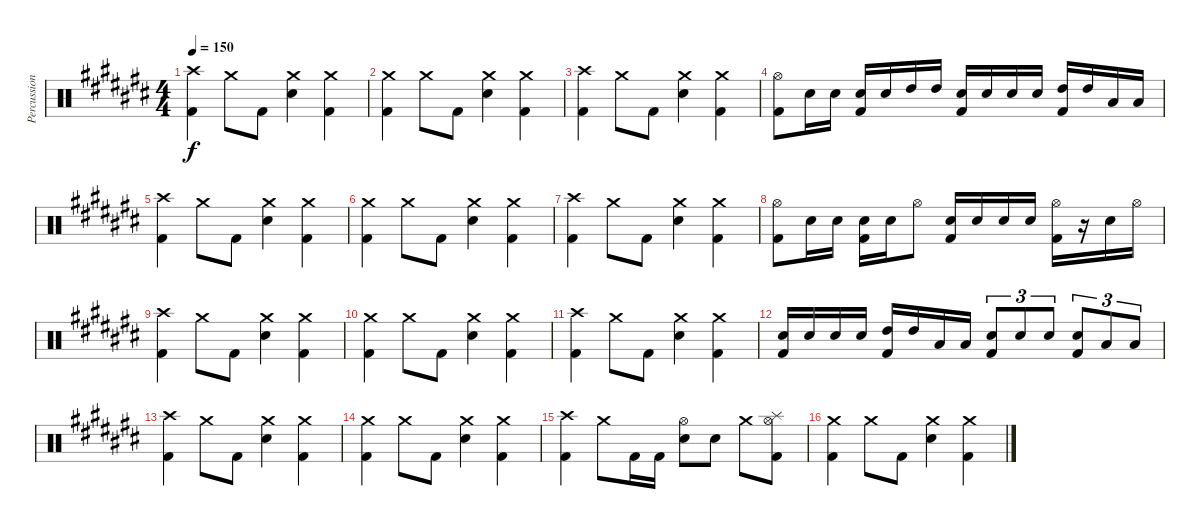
\track ("Percussion" "Percussion") {instrument percussion}
\staff {score}
\articulation defaults
\ts (4 4)
\tempo 150
\clef neutral
\ks c#
("Crash high (hit)" "Kick (hit) 2").4{dy f} "Crash medium (hit)".8 "Kick (hit) 2".8 ("Crash medium (hit)" "Electric Snare (hit)").4 ("Crash medium (hit)" "Kick (hit) 2").4 |
("Crash medium (hit)" "Kick (hit) 2").4 "Crash medium (hit)".8 "Kick (hit) 2".8 ("Crash medium (hit)" "Electric Snare (hit)").4 ("Crash medium (hit)" "Kick (hit) 2").4 |
("Crash high (hit)" "Kick (hit) 2").4 "Crash medium (hit)".8 "Kick (hit) 2".8 ("Crash medium (hit)" "Electric Snare (hit)").4 ("Crash medium (hit)" "Kick (hit) 2").4 |
("Hi-Hat (open)" "Kick (hit) 2").8 "Electric Snare (hit)".16 "Electric Snare (hit)".16 ("Electric Snare (hit)" "Kick (hit) 2").16 "Electric Snare (hit)".16 "High Tom (hit)".16 "High Tom (hit)".16 ("Electric Snare (hit)" "Kick (hit) 2").16 "Electric Snare (hit)".16 "Electric Snare (hit)".16 "Electric Snare (hit)".16 ("High Tom (hit)" "Kick (hit) 2").16 "High Tom (hit)".16 "Low Tom (hit)".16 "Low Tom (hit)".16 |
("Crash high (hit)" "Kick (hit) 2").4 "Crash medium (hit)".8 "Kick (hit) 2".8 ("Crash medium (hit)" "Electric Snare (hit)").4 ("Crash medium (hit)" "Kick (hit) 2").4 |
("Crash medium (hit)" "Kick (hit) 2").4 "Crash medium (hit)".8 "Kick (hit) 2".8 ("Crash medium (hit)" "Electric Snare (hit)").4 ("Crash medium (hit)" "Kick (hit) 2").4 |
("Crash high (hit)" "Kick (hit) 2").4 "Crash medium (hit)".8 "Kick (hit) 2".8 ("Crash medium (hit)" "Electric Snare (hit)").4 ("Crash medium (hit)" "Kick (hit) 2").4 |
("Hi-Hat (open)" "Kick (hit) 2").8 "Electric Snare (hit)".16 "Electric Snare (hit)".16 ("Electric Snare (hit)" "Kick (hit) 2").16 "Electric Snare (hit)".16 "Hi-Hat (open)".8 ("Electric Snare (hit)" "Kick (hit) 2").16 "Electric Snare (hit)".16 "Electric Snare (hit)".16 "Electric Snare (hit)".16 ("Hi-Hat (open)" "Kick (hit) 2").16 r.16 "Electric Snare (hit)".16 "Hi-Hat (open)".16 |
("Crash high (hit)" "Kick (hit) 2").4 "Crash medium (hit)".8 "Kick (hit) 2".8 ("Crash medium (hit)" "Electric Snare (hit)").4 ("Crash medium (hit)" "Kick (hit) 2").4 |
("Crash medium (hit)" "Kick (hit) 2").4 "Crash medium (hit)".8 "Kick (hit) 2".8 ("Crash medium (hit)" "Electric Snare (hit)").4 ("Crash medium (hit)" "Kick (hit) 2").4 |
("Crash high (hit)" "Kick (hit) 2").4 "Crash medium (hit)".8 "Kick (hit) 2".8 ("Crash medium (hit)" "Electric Snare (hit)").4 ("Crash medium (hit)" "Kick (hit) 2").4 |
("Electric Snare (hit)" "Kick (hit) 2").16 "Electric Snare (hit)".16 "Electric Snare (hit)".16 "Electric Snare (hit)".16 ("High Tom (hit)" "Kick (hit) 2").16 "High Tom (hit)".16 "Low Tom (hit)".16 "Low Tom (hit)".16 ("Electric Snare (hit)" "Kick (hit) 2").8{tu (3 2)} "Electric Snare (hit)".8{tu (3 2)} "Electric Snare (hit)".8{tu (3 2)} ("Electric Snare (hit)" "Kick (hit) 2").8{tu (3 2)} "Low Tom (hit)".8{tu (3 2)} "Low Tom (hit)".8{tu (3 2)} |
("Crash high (hit)" "Kick (hit) 2").4 "Crash medium (hit)".8 "Kick (hit) 2".8 ("Crash medium (hit)" "Electric Snare (hit)").4 ("Crash medium (hit)" "Kick (hit) 2").4 |
("Crash medium (hit)" "Kick (hit) 2").4 "Crash medium (hit)".8 "Kick (hit) 2".8 ("Crash medium (hit)" "Electric Snare (hit)").4 ("Crash medium (hit)" "Kick (hit) 2").4 |
("Crash high (hit)" "Kick (hit) 2").4 "Crash medium (hit)".8 "Kick (hit) 2".16 "Kick (hit) 2".16 ("Hi-Hat (open)" "Electric Snare (hit)").8 "Electric Snare (hit)".8 "Crash medium (hit)".8 ("Hi-Hat (open)" "Splash (hit)" "Kick (hit) 2").8 |
("Crash medium (hit)" "Kick (hit) 2").4 "Crash medium (hit)".8 "Kick (hit) 2".8 ("Crash medium (hit)" "Electric Snare (hit)").4 ("Crash medium (hit)" "Kick (hit) 2").4
